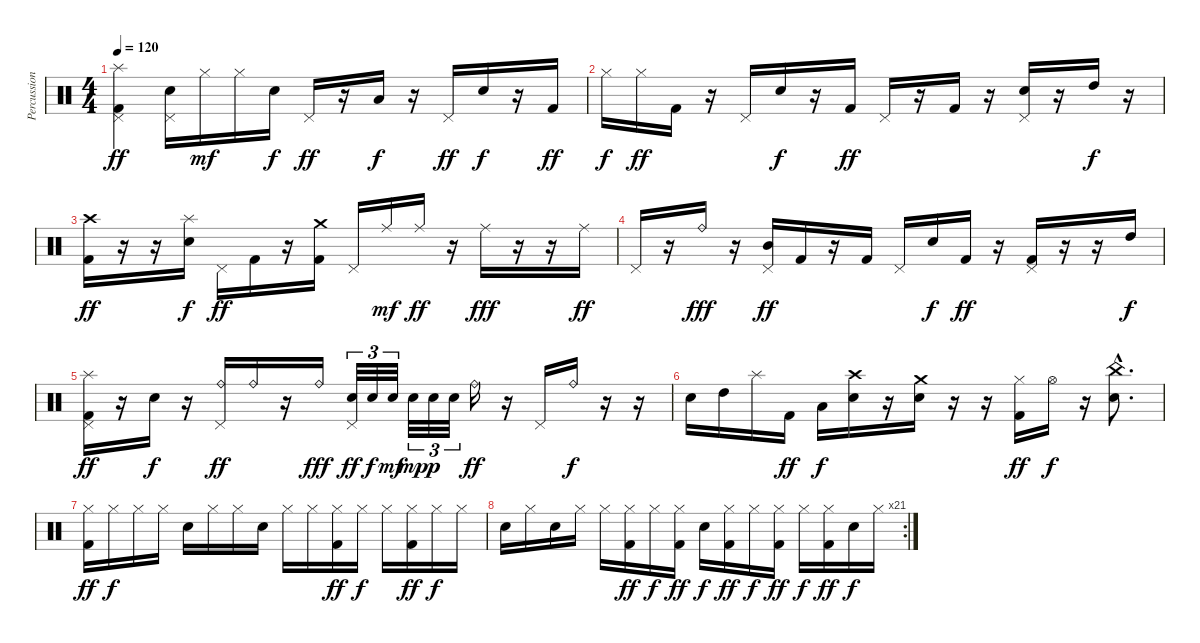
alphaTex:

\track ("Percussion" "Percussion") {instrument percussion}
\staff {score}
\articulation defaults
\ts (4 4)
\tempo 120
\clef neutral
\ks c
("Splash (hit)" "Pedal Hi-Hat (hit)" "Kick (hit) 2").4{dy ff} ("Pedal Hi-Hat (hit)" "Electric Snare (hit)").16 "Hi-Hat (closed)".16{dy mf} "Hi-Hat (closed)".16 "Electric Snare (hit)".16{dy f} "Pedal Hi-Hat (hit)".16{dy ff} r.16 "Low Tom (hit)".16{dy f} r.16 "Pedal Hi-Hat (hit)".16{dy ff} "Electric Snare (hit)".16{dy f} r.16 "Kick (hit) 2".16{dy ff} |
"Hi-Hat (closed)".16{dy f} "Hi-Hat (closed)".16{dy ff} "Kick (hit) 2".16 r.16 "Pedal Hi-Hat (hit)".16 "Electric Snare (hit)".16{dy f} r.16 "Kick (hit) 2".16{dy ff} "Pedal Hi-Hat (hit)".16 r.16 "Kick (hit) 2".16 r.16 ("Pedal Hi-Hat (hit)" "Electric Snare (hit)").16 r.16 "High Tom (hit)".16{dy f} r.16 |
("Crash high (hit)" "Kick (hit) 2").16{dy ff} r.16 r.16 ("Splash (hit)" "Electric Snare (hit)").16{dy f} "Pedal Hi-Hat (hit)".16{dy ff} "Kick (hit) 2".16 r.16 ("Crash medium (hit)" "Kick (hit) 2").16 "Pedal Hi-Hat (hit)".16 "Ride (middle)".16{dy mf} "Ride (middle)".16{dy ff} r.16 "Ride (middle)".16{dy fff} r.16 r.16 "Ride (middle)".16{dy ff} |
"Pedal Hi-Hat (hit)".16 r.16 "Ride (bell)".16{dy fff} r.16 ("Pedal Hi-Hat (hit)" "Mid Tom (hit)").16{dy ff} "Kick (hit) 2".16 r.16 "Kick (hit) 2".16 "Pedal Hi-Hat (hit)".16 "Electric Snare (hit)".16{dy f} "Kick (hit) 2".16{dy ff} r.16 ("Pedal Hi-Hat (hit)" "Kick (hit) 2").16 r.16 r.16 "High Tom (hit)".16{dy f} |
("Splash (hit)" "Pedal Hi-Hat (hit)" "Kick (hit) 2").16{dy ff} r.16 "Electric Snare (hit)".16{dy f} r.16 ("Ride (bell)" "Pedal Hi-Hat (hit)").16{dy ff} "Ride (bell)".16 r.16 "Ride (bell)".16{dy fff} ("Pedal Hi-Hat (hit)" "Electric Snare (hit)").32{tu (3 2) dy ff} "Electric Snare (hit)".32{tu (3 2) dy f} "Electric Snare (hit)".32{tu (3 2) dy mf} "Electric Snare (hit)".32{tu (3 2) dy mp} "Electric Snare (hit)".32{tu (3 2) dy p} "Electric Snare (hit)".32{tu (3 2)} "Ride (bell)".16{dy ff} r.16 "Pedal Hi-Hat (hit)".16 "Ride (bell)".16{dy f} r.16 r.16 |
"Electric Snare (hit)".16 "High Tom (hit)".16 "Splash (hit)".16 "Kick (hit) 2".16{dy ff} "Low Tom (hit)".16{dy f} ("Crash high (hit)" "Electric Snare (hit)").16 r.16 ("Crash medium (hit)" "Electric Snare (hit)").16 r.16 r.16 ("Hi-Hat (closed)" "Kick (hit) 2").16{dy ff} "Hi-Hat (open)".16{dy f} r.16 ("China (hit)"{hac} "Electric Snare (hit)"{hac}).8{d} |
("Hi-Hat (closed)" "Kick (hit) 2").16{dy ff} "Hi-Hat (closed)".16{dy f} "Hi-Hat (closed)".16 "Hi-Hat (closed)".16 "Electric Snare (hit)".16 "Hi-Hat (closed)".16 "Hi-Hat (closed)".16 "Electric Snare (hit)".16 "Hi-Hat (closed)".16 "Hi-Hat (closed)".16 ("Hi-Hat (closed)" "Kick (hit) 2").16{dy ff} "Hi-Hat (closed)".16{dy f} "Hi-Hat (closed)".16 ("Hi-Hat (closed)" "Kick (hit) 2").16{dy ff} "Hi-Hat (closed)".16{dy f} "Hi-Hat (closed)".16 |
\rc 21 "Electric Snare (hit)".16 "Hi-Hat (closed)".16 "Electric Snare (hit)".16 "Hi-Hat (closed)".16 "Hi-Hat (closed)".16
("Hi-Hat (closed)" "Kick (hit) 2").16{dy ff} "Hi-Hat (closed)".16{dy f} ("Hi-Hat (closed)" "Kick (hit) 2").16{dy ff} "Electric Snare (hit)".16{dy f} ("Hi-Hat (closed)" "Kick (hit) 2").16{dy ff} "Hi-Hat (closed)".16{dy f} ("Hi-Hat (closed)" "Kick (hit) 2").16{dy ff} "Hi-Hat (closed)".16{dy f} ("Hi-Hat (closed)" "Kick (hit) 2").16{dy ff} "Electric Snare (hit)".16{dy f} "Hi-Hat (closed)".16
